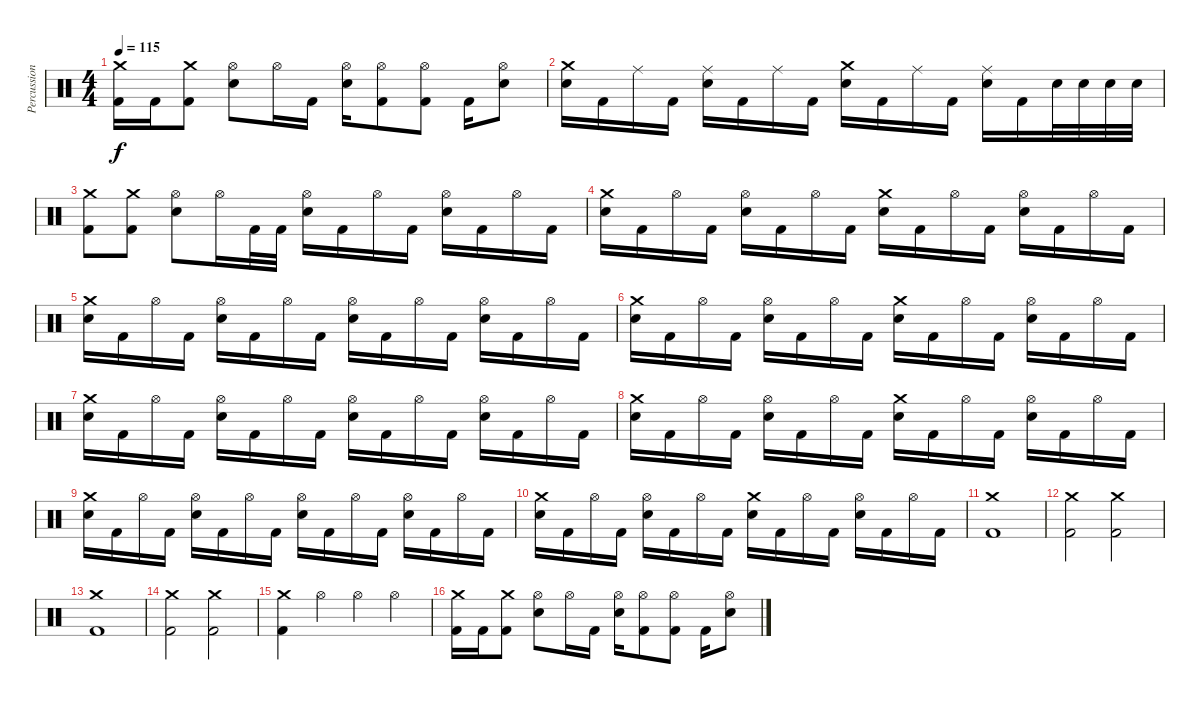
\track ("Percussion" "Percussion") {instrument percussion}
\staff {score}
\articulation defaults
\ts (4 4)
\tempo 115
\clef neutral
\ks c
("Crash medium (hit)" "Kick (hit) 2").16{dy f} "Kick (hit) 2".16 ("Crash medium (hit)" "Kick (hit) 2").8 ("Hi-Hat (open)" "Snare (hit) 2").8 "Hi-Hat (open)".16 "Kick (hit) 2".16 ("Hi-Hat (open)" "Snare (hit) 2").16 ("Hi-Hat (open)" "Kick (hit) 2").8 ("Hi-Hat (open)" "Kick (hit) 2").8 "Kick (hit) 2".16 ("Hi-Hat (open)" "Snare (hit) 2").8 |
("Crash medium (hit)" "Snare (hit) 2").16 "Kick (hit) 2".16 "Ride (middle)".16 "Kick (hit) 2".16 ("Ride (middle)" "Snare (hit) 2").16 "Kick (hit) 2".16 "Ride (middle)".16 "Kick (hit) 2".16 ("Crash medium (hit)" "Snare (hit) 2").16 "Kick (hit) 2".16 "Ride (middle)".16 "Kick (hit) 2".16 ("Ride (middle)" "Snare (hit) 2").16 "Kick (hit) 2".16 "Snare (hit) 2".32 "Snare (hit) 2".32 "Snare (hit) 2".32 "Snare (hit) 2".32 |
("Crash medium (hit)" "Kick (hit) 2").8 ("Crash medium (hit)" "Kick (hit) 2").8 ("Hi-Hat (open)" "Snare (hit) 2").8 "Hi-Hat (open)".16 "Kick (hit) 2".32 "Kick (hit) 2".32 ("Hi-Hat (open)" "Snare (hit) 2").16 "Kick (hit) 2".16 "Hi-Hat (open)".16 "Kick (hit) 2".16 ("Hi-Hat (open)" "Snare (hit) 2").16 "Kick (hit) 2".16 "Hi-Hat (open)".16 "Kick (hit) 2".16 |
("Crash medium (hit)" "Snare (hit) 2").16 "Kick (hit) 2".16 "Hi-Hat (open)".16 "Kick (hit) 2".16 ("Hi-Hat (open)" "Snare (hit) 2").16 "Kick (hit) 2".16 "Hi-Hat (open)".16 "Kick (hit) 2".16 ("Crash medium (hit)" "Snare (hit) 2").16 "Kick (hit) 2".16 "Hi-Hat (open)".16 "Kick (hit) 2".16 ("Hi-Hat (open)" "Snare (hit) 2").16 "Kick (hit) 2".16 "Hi-Hat (open)".16 "Kick (hit) 2".16 |
("Crash medium (hit)" "Snare (hit) 2").16 "Kick (hit) 2".16 "Hi-Hat (open)".16 "Kick (hit) 2".16 ("Hi-Hat (open)" "Snare (hit) 2").16 "Kick (hit) 2".16 "Hi-Hat (open)".16 "Kick (hit) 2".16 ("Hi-Hat (open)" "Snare (hit) 2").16 "Kick (hit) 2".16 "Hi-Hat (open)".16 "Kick (hit) 2".16 ("Hi-Hat (open)" "Snare (hit) 2").16 "Kick (hit) 2".16 "Hi-Hat (open)".16 "Kick (hit) 2".16 |
("Crash medium (hit)" "Snare (hit) 2").16 "Kick (hit) 2".16 "Hi-Hat (open)".16 "Kick (hit) 2".16 ("Hi-Hat (open)" "Snare (hit) 2").16 "Kick (hit) 2".16 "Hi-Hat (open)".16 "Kick (hit) 2".16 ("Crash medium (hit)" "Snare (hit) 2").16 "Kick (hit) 2".16 "Hi-Hat (open)".16 "Kick (hit) 2".16 ("Hi-Hat (open)" "Snare (hit) 2").16 "Kick (hit) 2".16 "Hi-Hat (open)".16 "Kick (hit) 2".16 |
("Crash medium (hit)" "Snare (hit) 2").16 "Kick (hit) 2".16 "Hi-Hat (open)".16 "Kick (hit) 2".16 ("Hi-Hat (open)" "Snare (hit) 2").16 "Kick (hit) 2".16 "Hi-Hat (open)".16 "Kick (hit) 2".16 ("Hi-Hat (open)" "Snare (hit) 2").16 "Kick (hit) 2".16 "Hi-Hat (open)".16 "Kick (hit) 2".16 ("Hi-Hat (open)" "Snare (hit) 2").16 "Kick (hit) 2".16 "Hi-Hat (open)".16 "Kick (hit) 2".16 |
("Crash medium (hit)" "Snare (hit) 2").16 "Kick (hit) 2".16 "Hi-Hat (open)".16 "Kick (hit) 2".16 ("Hi-Hat (open)" "Snare (hit) 2").16 "Kick (hit) 2".16 "Hi-Hat (open)".16 "Kick (hit) 2".16 ("Crash medium (hit)" "Snare (hit) 2").16 "Kick (hit) 2".16 "Hi-Hat (open)".16 "Kick (hit) 2".16 ("Hi-Hat (open)" "Snare (hit) 2").16 "Kick (hit) 2".16 "Hi-Hat (open)".16 "Kick (hit) 2".16 |
("Crash medium (hit)" "Snare (hit) 2").16 "Kick (hit) 2".16 "Hi-Hat (open)".16 "Kick (hit) 2".16 ("Hi-Hat (open)" "Snare (hit) 2").16 "Kick (hit) 2".16 "Hi-Hat (open)".16 "Kick (hit) 2".16 ("Hi-Hat (open)" "Snare (hit) 2").16 "Kick (hit) 2".16 "Hi-Hat (open)".16 "Kick (hit) 2".16 ("Hi-Hat (open)" "Snare (hit) 2").16 "Kick (hit) 2".16 "Hi-Hat (open)".16 "Kick (hit) 2".16 |
("Crash medium (hit)" "Snare (hit) 2").16 "Kick (hit) 2".16 "Hi-Hat (open)".16 "Kick (hit) 2".16 ("Hi-Hat (open)" "Snare (hit) 2").16 "Kick (hit) 2".16 "Hi-Hat (open)".16 "Kick (hit) 2".16 ("Crash medium (hit)" "Snare (hit) 2").16 "Kick (hit) 2".16 "Hi-Hat (open)".16 "Kick (hit) 2".16 ("Hi-Hat (open)" "Snare (hit) 2").16 "Kick (hit) 2".16 "Hi-Hat (open)".16 "Kick (hit) 2".16 |
("Crash medium (hit)" "Kick (hit) 2").1 |
("Crash medium (hit)" "Kick (hit) 2").2 ("Crash medium (hit)" "Kick (hit) 2").2 |
("Crash medium (hit)" "Kick (hit) 2").1 |
("Crash medium (hit)" "Kick (hit) 2").2 ("Crash medium (hit)" "Kick (hit) 2").2 |
("Crash medium (hit)" "Kick (hit) 2").4 "Hi-Hat (open)".4 "Hi-Hat (open)".4 "Hi-Hat (open)".4 |
("Crash medium (hit)" "Kick (hit) 2").16 "Kick (hit) 2".16 ("Crash medium (hit)" "Kick (hit) 2").8 ("Hi-Hat (open)" "Snare (hit) 2").8 "Hi-Hat (open)".16 "Kick (hit) 2".16 ("Hi-Hat (open)" "Snare (hit) 2").16 ("Hi-Hat (open)" "Kick (hit) 2").8 ("Hi-Hat (open)" "Kick (hit) 2").8 "Kick (hit) 2".16 ("Hi-Hat (open)" "Snare (hit) 2").8
